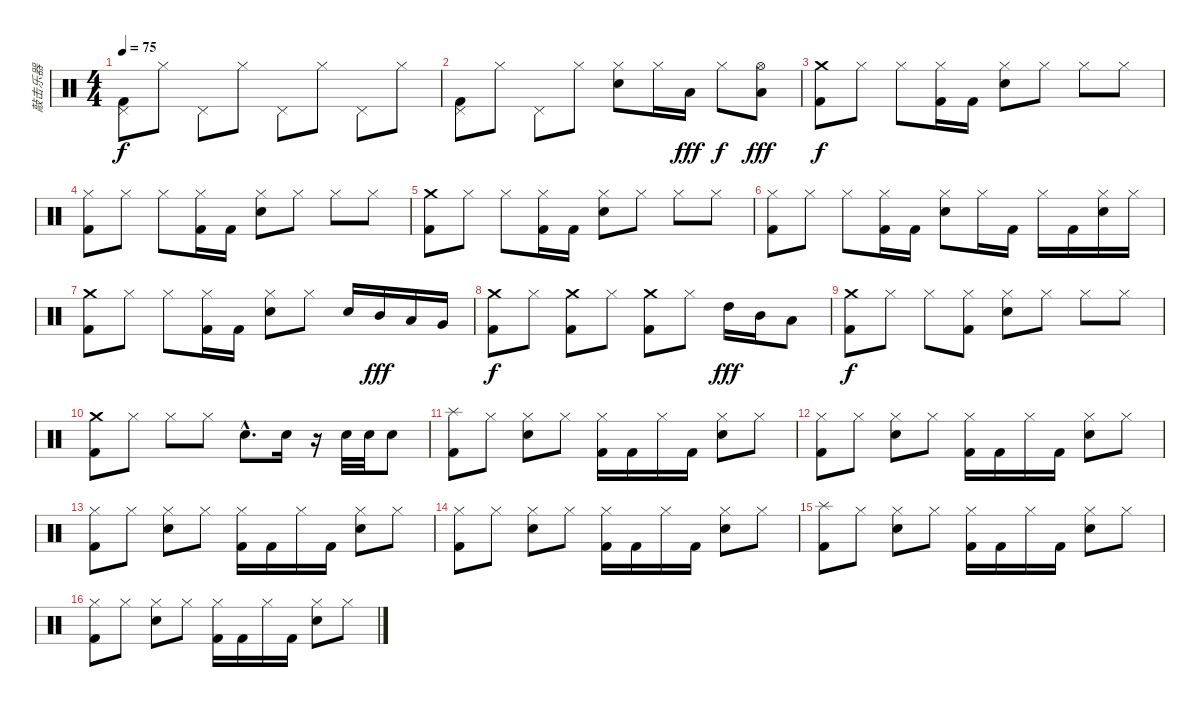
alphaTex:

\track ("敲击乐器" "敲击乐器") {instrument percussion}
\staff {score}
\articulation defaults
\ts (4 4)
\tempo 75
\clef neutral
\ks c
("Pedal Hi-Hat (hit)" "Kick (hit) 2").8{dy f} "Hi-Hat (closed)".8 "Pedal Hi-Hat (hit)".8 "Hi-Hat (closed)".8 "Pedal Hi-Hat (hit)".8 "Hi-Hat (closed)".8 "Pedal Hi-Hat (hit)".8 "Hi-Hat (closed)".8 |
("Pedal Hi-Hat (hit)" "Kick (hit) 2").8 "Hi-Hat (closed)".8 "Pedal Hi-Hat (hit)".8 "Hi-Hat (closed)".8 ("Hi-Hat (closed)" "Electric Snare (hit)").8 "Hi-Hat (closed)".16 "Low Tom (hit)".16{dy fff} "Hi-Hat (closed)".8{dy f} ("Hi-Hat (open)" "Low Floor Tom (hit)").8{dy fff} |
("Crash medium (hit)" "Kick (hit) 2").8{dy f} "Hi-Hat (closed)".8 "Hi-Hat (closed)".8 ("Hi-Hat (closed)" "Kick (hit) 2").16 "Kick (hit) 2".16 ("Hi-Hat (closed)" "Electric Snare (hit)").8 "Hi-Hat (closed)".8 "Hi-Hat (closed)".8 "Hi-Hat (closed)".8 |
("Hi-Hat (closed)" "Kick (hit) 2").8 "Hi-Hat (closed)".8 "Hi-Hat (closed)".8 ("Hi-Hat (closed)" "Kick (hit) 2").16 "Kick (hit) 2".16 ("Hi-Hat (closed)" "Electric Snare (hit)").8 "Hi-Hat (closed)".8 "Hi-Hat (closed)".8 "Hi-Hat (closed)".8 |
("Crash medium (hit)" "Kick (hit) 2").8 "Hi-Hat (closed)".8 "Hi-Hat (closed)".8 ("Hi-Hat (closed)" "Kick (hit) 2").16 "Kick (hit) 2".16 ("Hi-Hat (closed)" "Electric Snare (hit)").8 "Hi-Hat (closed)".8 "Hi-Hat (closed)".8 "Hi-Hat (closed)".8 |
("Hi-Hat (closed)" "Kick (hit) 2").8 "Hi-Hat (closed)".8 "Hi-Hat (closed)".8 ("Hi-Hat (closed)" "Kick (hit) 2").16 "Kick (hit) 2".16 ("Hi-Hat (closed)" "Electric Snare (hit)").8 "Hi-Hat (closed)".16 "Kick (hit) 2".16 "Hi-Hat (closed)".16 "Kick (hit) 2".16 ("Hi-Hat (closed)" "Electric Snare (hit)").16 "Hi-Hat (closed)".16 |
("Crash medium (hit)" "Kick (hit) 2").8 "Hi-Hat (closed)".8 "Hi-Hat (closed)".8 ("Hi-Hat (closed)" "Kick (hit) 2").16 "Kick (hit) 2".16 ("Hi-Hat (closed)" "Electric Snare (hit)").8 "Hi-Hat (closed)".8 "Electric Snare (hit)".16 "Mid Tom (hit)".16{dy fff} "Low Tom (hit)".16 "Very Low Tom (hit)".16 |
("Crash medium (hit)" "Kick (hit) 2").8{dy f} "Hi-Hat (closed)".8 ("Crash medium (hit)" "Kick (hit) 2").8 "Hi-Hat (closed)".8 ("Crash medium (hit)" "Kick (hit) 2").8 "Hi-Hat (closed)".8 "High Tom (hit)".16{dy fff} "Mid Tom (hit)".16 "Low Tom (hit)".8 |
("Crash medium (hit)" "Kick (hit) 2").8{dy f} "Hi-Hat (closed)".8 "Hi-Hat (closed)".8 ("Hi-Hat (closed)" "Kick (hit) 2").8 ("Hi-Hat (closed)" "Electric Snare (hit)").8 "Hi-Hat (closed)".8 "Hi-Hat (closed)".8 "Hi-Hat (closed)".8 |
("Crash medium (hit)" "Kick (hit) 2").8 "Hi-Hat (closed)".8 "Hi-Hat (closed)".8 "Hi-Hat (closed)".8 "Electric Snare (hit)"{hac}.8{d} "Electric Snare (hit)".16 r.16 "Electric Snare (hit)".32 "Electric Snare (hit)".32 "Electric Snare (hit)".8 |
("Splash (hit)" "Kick (hit) 2").8 "Hi-Hat (closed)".8 ("Hi-Hat (closed)" "Electric Snare (hit)").8 "Hi-Hat (closed)".8 ("Hi-Hat (closed)" "Kick (hit) 2").16 "Kick (hit) 2".16 "Hi-Hat (closed)".16 "Kick (hit) 2".16 ("Hi-Hat (closed)" "Electric Snare (hit)").8 "Hi-Hat (closed)".8 |
("Hi-Hat (closed)" "Kick (hit) 2").8 "Hi-Hat (closed)".8 ("Hi-Hat (closed)" "Electric Snare (hit)").8 "Hi-Hat (closed)".8 ("Hi-Hat (closed)" "Kick (hit) 2").16 "Kick (hit) 2".16 "Hi-Hat (closed)".16 "Kick (hit) 2".16 ("Hi-Hat (closed)" "Electric Snare (hit)").8 "Hi-Hat (closed)".8 |
("Hi-Hat (closed)" "Kick (hit) 2").8 "Hi-Hat (closed)".8 ("Hi-Hat (closed)" "Electric Snare (hit)").8 "Hi-Hat (closed)".8 ("Hi-Hat (closed)" "Kick (hit) 2").16 "Kick (hit) 2".16 "Hi-Hat (closed)".16 "Kick (hit) 2".16 ("Hi-Hat (closed)" "Electric Snare (hit)").8 "Hi-Hat (closed)".8 |
("Hi-Hat (closed)" "Kick (hit) 2").8 "Hi-Hat (closed)".8 ("Hi-Hat (closed)" "Electric Snare (hit)").8 "Hi-Hat (closed)".8 ("Hi-Hat (closed)" "Kick (hit) 2").16 "Kick (hit) 2".16 "Hi-Hat (closed)".16 "Kick (hit) 2".16 ("Hi-Hat (closed)" "Electric Snare (hit)").8 "Hi-Hat (closed)".8 |
("Splash (hit)" "Kick (hit) 2").8 "Hi-Hat (closed)".8 ("Hi-Hat (closed)" "Electric Snare (hit)").8 "Hi-Hat (closed)".8 ("Hi-Hat (closed)" "Kick (hit) 2").16 "Kick (hit) 2".16 "Hi-Hat (closed)".16 "Kick (hit) 2".16 ("Hi-Hat (closed)" "Electric Snare (hit)").8 "Hi-Hat (closed)".8 |
("Hi-Hat (closed)" "Kick (hit) 2").8 "Hi-Hat (closed)".8 ("Hi-Hat (closed)" "Electric Snare (hit)").8 "Hi-Hat (closed)".8 ("Hi-Hat (closed)" "Kick (hit) 2").16 "Kick (hit) 2".16 "Hi-Hat (closed)".16 "Kick (hit) 2".16 ("Hi-Hat (closed)" "Electric Snare (hit)").8 "Hi-Hat (closed)".8
